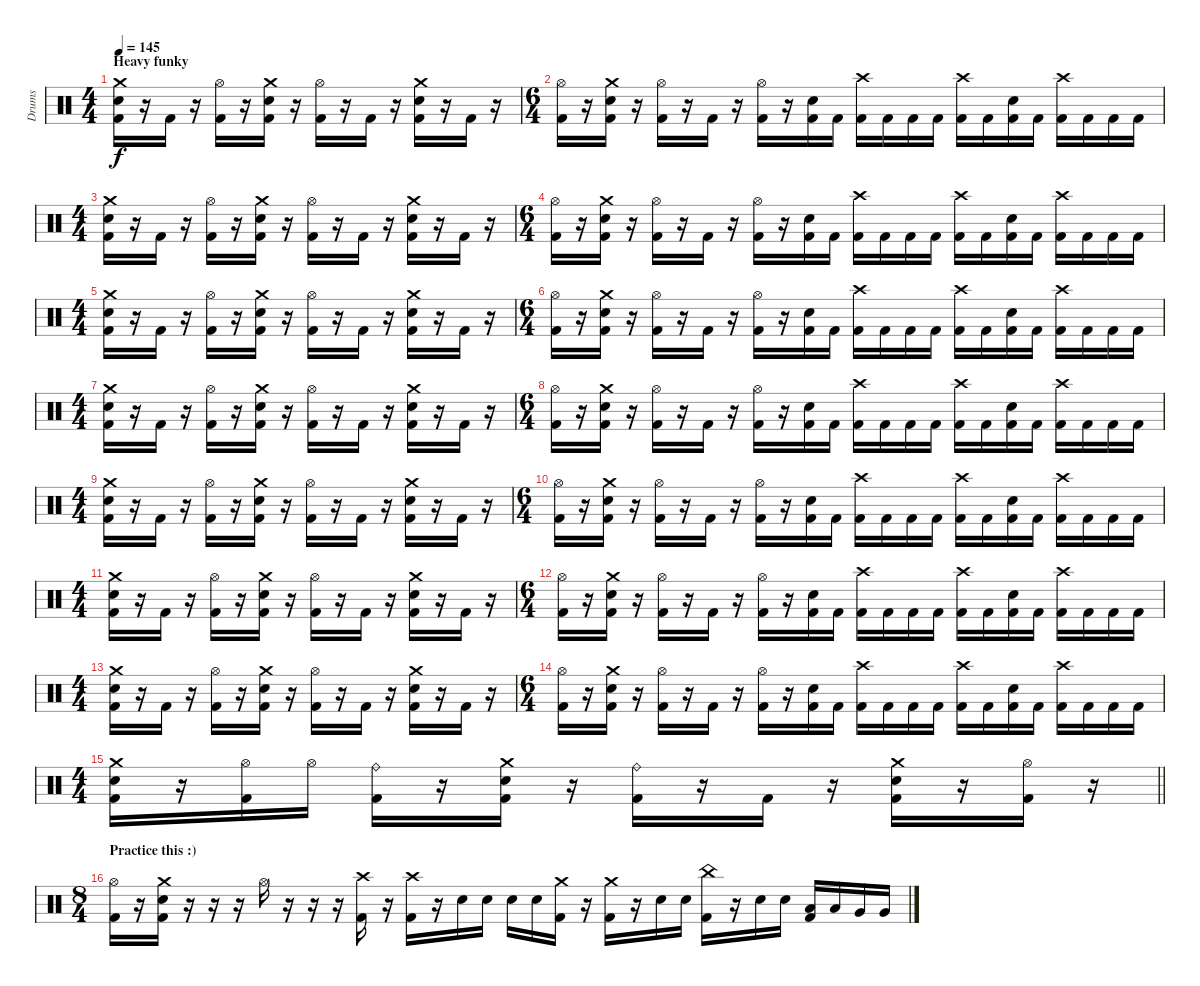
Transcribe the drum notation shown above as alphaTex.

\track ("Drums" "Drums") {mute instrument percussion}
\staff {score}
\articulation defaults
\ts (4 4)
\section ("" "Heavy funky")
\tempo 145
\clef neutral
\ks c
("Crash medium (hit)" "Electric Snare (hit)" "Kick (hit) 2").16{dy f volume 13} r.16 "Kick (hit) 2".16 r.16 ("Hi-Hat (open)" "Kick (hit) 2").16 r.16 ("Crash medium (hit)" "Electric Snare (hit)" "Kick (hit) 2").16 r.16 ("Hi-Hat (open)" "Kick (hit) 2").16 r.16 "Kick (hit) 2".16 r.16 ("Crash medium (hit)" "Electric Snare (hit)" "Kick (hit) 2").16 r.16 "Kick (hit) 2".16 r.16 |
\ts (6 4)
("Hi-Hat (open)" "Kick (hit) 2").16 r.16 ("Crash medium (hit)" "Electric Snare (hit)" "Kick (hit) 2").16 r.16 ("Hi-Hat (open)" "Kick (hit) 2").16 r.16 "Kick (hit) 2".16 r.16 ("Hi-Hat (open)" "Kick (hit) 2").16 r.16 ("Electric Snare (hit)" "Kick (hit) 2").16 "Kick (hit) 2".16 ("Crash high (hit)" "Kick (hit) 2").16 "Kick (hit) 2".16 "Kick (hit) 2".16 "Kick (hit) 2".16 ("Crash high (hit)" "Kick (hit) 2").16 "Kick (hit) 2".16 ("Electric Snare (hit)" "Kick (hit) 2").16 "Kick (hit) 2".16 ("Crash high (hit)" "Kick (hit) 2").16 "Kick (hit) 2".16 "Kick (hit) 2".16 "Kick (hit) 2".16 |
\ts (4 4)
("Crash medium (hit)" "Electric Snare (hit)" "Kick (hit) 2").16 r.16 "Kick (hit) 2".16 r.16 ("Hi-Hat (open)" "Kick (hit) 2").16 r.16 ("Crash medium (hit)" "Electric Snare (hit)" "Kick (hit) 2").16 r.16 ("Hi-Hat (open)" "Kick (hit) 2").16 r.16 "Kick (hit) 2".16 r.16 ("Crash medium (hit)" "Electric Snare (hit)" "Kick (hit) 2").16 r.16 "Kick (hit) 2".16 r.16 |
\ts (6 4)
("Hi-Hat (open)" "Kick (hit) 2").16 r.16 ("Crash medium (hit)" "Electric Snare (hit)" "Kick (hit) 2").16 r.16 ("Hi-Hat (open)" "Kick (hit) 2").16 r.16 "Kick (hit) 2".16 r.16 ("Hi-Hat (open)" "Kick (hit) 2").16 r.16 ("Electric Snare (hit)" "Kick (hit) 2").16 "Kick (hit) 2".16 ("Crash high (hit)" "Kick (hit) 2").16 "Kick (hit) 2".16 "Kick (hit) 2".16 "Kick (hit) 2".16 ("Crash high (hit)" "Kick (hit) 2").16 "Kick (hit) 2".16 ("Electric Snare (hit)" "Kick (hit) 2").16 "Kick (hit) 2".16 ("Crash high (hit)" "Kick (hit) 2").16 "Kick (hit) 2".16 "Kick (hit) 2".16 "Kick (hit) 2".16 |
\ts (4 4)
("Crash medium (hit)" "Electric Snare (hit)" "Kick (hit) 2").16{volume 13} r.16 "Kick (hit) 2".16 r.16 ("Hi-Hat (open)" "Kick (hit) 2").16 r.16 ("Crash medium (hit)" "Electric Snare (hit)" "Kick (hit) 2").16 r.16 ("Hi-Hat (open)" "Kick (hit) 2").16 r.16 "Kick (hit) 2".16 r.16 ("Crash medium (hit)" "Electric Snare (hit)" "Kick (hit) 2").16 r.16 "Kick (hit) 2".16 r.16 |
\ts (6 4)
("Hi-Hat (open)" "Kick (hit) 2").16 r.16 ("Crash medium (hit)" "Electric Snare (hit)" "Kick (hit) 2").16 r.16 ("Hi-Hat (open)" "Kick (hit) 2").16 r.16 "Kick (hit) 2".16 r.16 ("Hi-Hat (open)" "Kick (hit) 2").16 r.16 ("Electric Snare (hit)" "Kick (hit) 2").16 "Kick (hit) 2".16 ("Crash high (hit)" "Kick (hit) 2").16 "Kick (hit) 2".16 "Kick (hit) 2".16 "Kick (hit) 2".16 ("Crash high (hit)" "Kick (hit) 2").16 "Kick (hit) 2".16 ("Electric Snare (hit)" "Kick (hit) 2").16 "Kick (hit) 2".16 ("Crash high (hit)" "Kick (hit) 2").16 "Kick (hit) 2".16 "Kick (hit) 2".16 "Kick (hit) 2".16 |
\ts (4 4)
("Crash medium (hit)" "Electric Snare (hit)" "Kick (hit) 2").16 r.16 "Kick (hit) 2".16 r.16 ("Hi-Hat (open)" "Kick (hit) 2").16 r.16 ("Crash medium (hit)" "Electric Snare (hit)" "Kick (hit) 2").16 r.16 ("Hi-Hat (open)" "Kick (hit) 2").16 r.16 "Kick (hit) 2".16 r.16 ("Crash medium (hit)" "Electric Snare (hit)" "Kick (hit) 2").16 r.16 "Kick (hit) 2".16 r.16 |
\ts (6 4)
("Hi-Hat (open)" "Kick (hit) 2").16 r.16 ("Crash medium (hit)" "Electric Snare (hit)" "Kick (hit) 2").16 r.16 ("Hi-Hat (open)" "Kick (hit) 2").16 r.16 "Kick (hit) 2".16 r.16 ("Hi-Hat (open)" "Kick (hit) 2").16 r.16 ("Electric Snare (hit)" "Kick (hit) 2").16 "Kick (hit) 2".16 ("Crash high (hit)" "Kick (hit) 2").16 "Kick (hit) 2".16 "Kick (hit) 2".16 "Kick (hit) 2".16 ("Crash high (hit)" "Kick (hit) 2").16 "Kick (hit) 2".16 ("Electric Snare (hit)" "Kick (hit) 2").16 "Kick (hit) 2".16 ("Crash high (hit)" "Kick (hit) 2").16 "Kick (hit) 2".16 "Kick (hit) 2".16 "Kick (hit) 2".16 |
\ts (4 4)
("Crash medium (hit)" "Electric Snare (hit)" "Kick (hit) 2").16{volume 13} r.16 "Kick (hit) 2".16 r.16 ("Hi-Hat (open)" "Kick (hit) 2").16 r.16 ("Crash medium (hit)" "Electric Snare (hit)" "Kick (hit) 2").16 r.16 ("Hi-Hat (open)" "Kick (hit) 2").16 r.16 "Kick (hit) 2".16 r.16 ("Crash medium (hit)" "Electric Snare (hit)" "Kick (hit) 2").16 r.16 "Kick (hit) 2".16 r.16 |
\ts (6 4)
("Hi-Hat (open)" "Kick (hit) 2").16 r.16 ("Crash medium (hit)" "Electric Snare (hit)" "Kick (hit) 2").16 r.16 ("Hi-Hat (open)" "Kick (hit) 2").16 r.16 "Kick (hit) 2".16 r.16 ("Hi-Hat (open)" "Kick (hit) 2").16 r.16 ("Electric Snare (hit)" "Kick (hit) 2").16 "Kick (hit) 2".16 ("Crash high (hit)" "Kick (hit) 2").16 "Kick (hit) 2".16 "Kick (hit) 2".16 "Kick (hit) 2".16 ("Crash high (hit)" "Kick (hit) 2").16 "Kick (hit) 2".16 ("Electric Snare (hit)" "Kick (hit) 2").16 "Kick (hit) 2".16 ("Crash high (hit)" "Kick (hit) 2").16 "Kick (hit) 2".16 "Kick (hit) 2".16 "Kick (hit) 2".16 |
\ts (4 4)
("Crash medium (hit)" "Electric Snare (hit)" "Kick (hit) 2").16 r.16 "Kick (hit) 2".16 r.16 ("Hi-Hat (open)" "Kick (hit) 2").16 r.16 ("Crash medium (hit)" "Electric Snare (hit)" "Kick (hit) 2").16 r.16 ("Hi-Hat (open)" "Kick (hit) 2").16 r.16 "Kick (hit) 2".16 r.16 ("Crash medium (hit)" "Electric Snare (hit)" "Kick (hit) 2").16 r.16 "Kick (hit) 2".16 r.16 |
\ts (6 4)
("Hi-Hat (open)" "Kick (hit) 2").16 r.16 ("Crash medium (hit)" "Electric Snare (hit)" "Kick (hit) 2").16 r.16 ("Hi-Hat (open)" "Kick (hit) 2").16 r.16 "Kick (hit) 2".16 r.16 ("Hi-Hat (open)" "Kick (hit) 2").16 r.16 ("Electric Snare (hit)" "Kick (hit) 2").16 "Kick (hit) 2".16 ("Crash high (hit)" "Kick (hit) 2").16 "Kick (hit) 2".16 "Kick (hit) 2".16 "Kick (hit) 2".16 ("Crash high (hit)" "Kick (hit) 2").16 "Kick (hit) 2".16 ("Electric Snare (hit)" "Kick (hit) 2").16 "Kick (hit) 2".16 ("Crash high (hit)" "Kick (hit) 2").16 "Kick (hit) 2".16 "Kick (hit) 2".16 "Kick (hit) 2".16 |
\ts (4 4)
("Crash medium (hit)" "Electric Snare (hit)" "Kick (hit) 2").16{volume 13} r.16 "Kick (hit) 2".16 r.16 ("Hi-Hat (open)" "Kick (hit) 2").16 r.16 ("Crash medium (hit)" "Electric Snare (hit)" "Kick (hit) 2").16 r.16 ("Hi-Hat (open)" "Kick (hit) 2").16 r.16 "Kick (hit) 2".16 r.16 ("Crash medium (hit)" "Electric Snare (hit)" "Kick (hit) 2").16 r.16 "Kick (hit) 2".16 r.16 |
\ts (6 4)
("Hi-Hat (open)" "Kick (hit) 2").16 r.16 ("Crash medium (hit)" "Electric Snare (hit)" "Kick (hit) 2").16 r.16 ("Hi-Hat (open)" "Kick (hit) 2").16 r.16 "Kick (hit) 2".16 r.16 ("Hi-Hat (open)" "Kick (hit) 2").16 r.16 ("Electric Snare (hit)" "Kick (hit) 2").16 "Kick (hit) 2".16 ("Crash high (hit)" "Kick (hit) 2").16 "Kick (hit) 2".16 "Kick (hit) 2".16 "Kick (hit) 2".16 ("Crash high (hit)" "Kick (hit) 2").16 "Kick (hit) 2".16 ("Electric Snare (hit)" "Kick (hit) 2").16 "Kick (hit) 2".16 ("Crash high (hit)" "Kick (hit) 2").16 "Kick (hit) 2".16 "Kick (hit) 2".16 "Kick (hit) 2".16 |
\ts (4 4)
\barLineRight lightlight
("Crash medium (hit)" "Electric Snare (hit)" "Kick (hit) 2").16 r.16 ("Hi-Hat (open)" "Kick (hit) 2").16 "Hi-Hat (open)".16 ("Ride (bell)" "Kick (hit) 2").16 r.16 ("Crash medium (hit)" "Electric Snare (hit)" "Kick (hit) 2").16 r.16 ("Ride (bell)" "Kick (hit) 2").16 r.16 "Kick (hit) 2".16 r.16 ("Crash medium (hit)" "Electric Snare (hit)" "Kick (hit) 2").16 r.16 ("Hi-Hat (open)" "Kick (hit) 2").16 r.16 |
\ts (8 4)
\section ("" "Practice this :)")
("Hi-Hat (open)" "Kick (hit) 2").16 r.16 ("Crash medium (hit)" "Electric Snare (hit)" "Kick (hit) 2").16 r.16 r.16 r.16 "Hi-Hat (open)".16 r.16 r.16 r.16 ("Crash high (hit)" "Kick (hit) 2").16 r.16 ("Crash high (hit)" "Kick (hit) 2").16 r.16 "Electric Snare (hit)".16 "Electric Snare (hit)".16 "Electric Snare (hit)".16 "Electric Snare (hit)".16 ("Crash medium (hit)" "Kick (hit) 2").16 r.16 ("Crash medium (hit)" "Kick (hit) 2").16 r.16 "Electric Snare (hit)".16 "Electric Snare (hit)".16 ("China (hit)" "Kick (hit) 2").16 r.16 "Electric Snare (hit)".16 "Electric Snare (hit)".16 ("Low Tom (hit)" "Kick (hit) 2").16 "Low Tom (hit)".16 "Very Low Tom (hit)".16 "Very Low Tom (hit)".16
